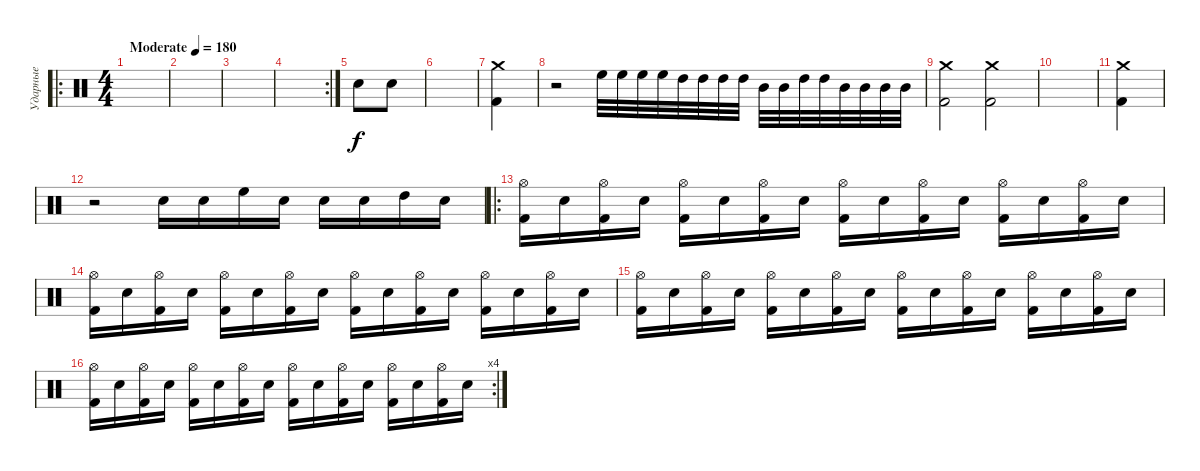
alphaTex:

\track ("Ударные" "Ударные") {instrument percussion}
\staff {score}
\articulation defaults
\ro
\ts (4 4)
\tempo (180 "Moderate")
\clef neutral
\ks c
|
|
|
\rc 2
|
"Electric Snare (hit)".8 "Electric Snare (hit)".8 |
|
("Kick (hit) 2" "Crash medium (hit)").4 |
r.2 "High Floor Tom (hit)".32 "High Floor Tom (hit)".32 "High Floor Tom (hit)".32 "High Floor Tom (hit)".32 "High Tom (hit)".32 "High Tom (hit)".32 "High Tom (hit)".32 "High Tom (hit)".32 "Mid Tom (hit)".32 "Mid Tom (hit)".32 "High Tom (hit)".32 "High Tom (hit)".32 "Mid Tom (hit)".32 "Mid Tom (hit)".32 "Mid Tom (hit)".32 "Mid Tom (hit)".32 |
("Crash medium (hit)" "Kick (hit) 2").2 ("Crash medium (hit)" "Kick (hit) 2").2 |
|
("Kick (hit) 2" "Crash medium (hit)").4 |
r.2 "Electric Snare (hit)".16 "Electric Snare (hit)".16 "High Floor Tom (hit)".16 "Electric Snare (hit)".16 "Electric Snare (hit)".16 "Electric Snare (hit)".16 "High Tom (hit)".16 "Electric Snare (hit)".16 |
\ro
("Kick (hit) 2" "Hi-Hat (open)").16 "Electric Snare (hit)".16 ("Kick (hit) 2" "Hi-Hat (open)").16 "Electric Snare (hit)".16 ("Kick (hit) 2" "Hi-Hat (open)").16 "Electric Snare (hit)".16 ("Kick (hit) 2" "Hi-Hat (open)").16 "Electric Snare (hit)".16 ("Kick (hit) 2" "Hi-Hat (open)").16 "Electric Snare (hit)".16 ("Kick (hit) 2" "Hi-Hat (open)").16 "Electric Snare (hit)".16 ("Kick (hit) 2" "Hi-Hat (open)").16 "Electric Snare (hit)".16 ("Kick (hit) 2" "Hi-Hat (open)").16 "Electric Snare (hit)".16 |
("Kick (hit) 2" "Hi-Hat (open)").16 "Electric Snare (hit)".16 ("Kick (hit) 2" "Hi-Hat (open)").16 "Electric Snare (hit)".16 ("Kick (hit) 2" "Hi-Hat (open)").16 "Electric Snare (hit)".16 ("Kick (hit) 2" "Hi-Hat (open)").16 "Electric Snare (hit)".16 ("Kick (hit) 2" "Hi-Hat (open)").16 "Electric Snare (hit)".16 ("Kick (hit) 2" "Hi-Hat (open)").16 "Electric Snare (hit)".16 ("Kick (hit) 2" "Hi-Hat (open)").16 "Electric Snare (hit)".16 ("Kick (hit) 2" "Hi-Hat (open)").16 "Electric Snare (hit)".16 |
("Kick (hit) 2" "Hi-Hat (open)").16 "Electric Snare (hit)".16 ("Kick (hit) 2" "Hi-Hat (open)").16 "Electric Snare (hit)".16 ("Kick (hit) 2" "Hi-Hat (open)").16 "Electric Snare (hit)".16 ("Kick (hit) 2" "Hi-Hat (open)").16 "Electric Snare (hit)".16 ("Kick (hit) 2" "Hi-Hat (open)").16 "Electric Snare (hit)".16 ("Kick (hit) 2" "Hi-Hat (open)").16 "Electric Snare (hit)".16 ("Kick (hit) 2" "Hi-Hat (open)").16 "Electric Snare (hit)".16 ("Kick (hit) 2" "Hi-Hat (open)").16 "Electric Snare (hit)".16 |
\rc 4
("Kick (hit) 2" "Hi-Hat (open)").16 "Electric Snare (hit)".16 ("Kick (hit) 2" "Hi-Hat (open)").16 "Electric Snare (hit)".16 ("Kick (hit) 2" "Hi-Hat (open)").16 "Electric Snare (hit)".16 ("Kick (hit) 2" "Hi-Hat (open)").16 "Electric Snare (hit)".16 ("Kick (hit) 2" "Hi-Hat (open)").16 "Electric Snare (hit)".16 ("Kick (hit) 2" "Hi-Hat (open)").16 "Electric Snare (hit)".16 ("Kick (hit) 2" "Hi-Hat (open)").16 "Electric Snare (hit)".16 ("Kick (hit) 2" "Hi-Hat (open)").16 "Electric Snare (hit)".16
